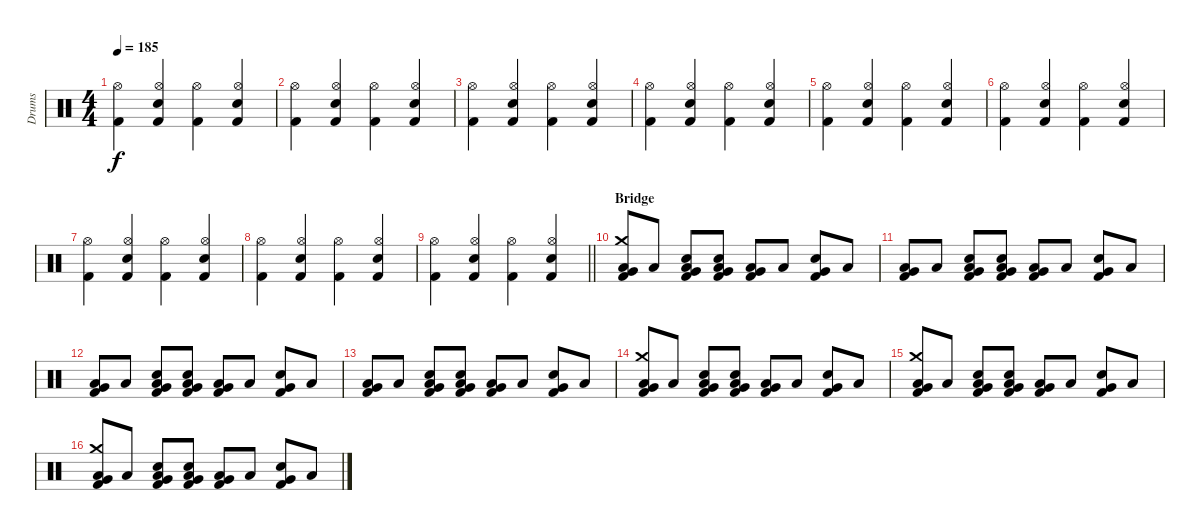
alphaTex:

\track ("Drums" "Drums") {instrument percussion bank 1}
\staff {score}
\articulation defaults
\ts (4 4)
\tempo 185
\clef neutral
\ks c
("Kick (hit) 2" "Hi-Hat (open)").4{dy f} ("Kick (hit) 2" "Snare (hit) 2" "Hi-Hat (open)").4 ("Kick (hit) 2" "Hi-Hat (open)").4 ("Kick (hit) 2" "Snare (hit) 2" "Hi-Hat (open)").4 |
("Kick (hit) 2" "Hi-Hat (open)").4 ("Kick (hit) 2" "Snare (hit) 2" "Hi-Hat (open)").4 ("Kick (hit) 2" "Hi-Hat (open)").4 ("Kick (hit) 2" "Snare (hit) 2" "Hi-Hat (open)").4 |
("Kick (hit) 2" "Hi-Hat (open)").4 ("Kick (hit) 2" "Snare (hit) 2" "Hi-Hat (open)").4 ("Kick (hit) 2" "Hi-Hat (open)").4 ("Kick (hit) 2" "Snare (hit) 2" "Hi-Hat (open)").4 |
("Kick (hit) 2" "Hi-Hat (open)").4 ("Kick (hit) 2" "Snare (hit) 2" "Hi-Hat (open)").4 ("Kick (hit) 2" "Hi-Hat (open)").4 ("Kick (hit) 2" "Snare (hit) 2" "Hi-Hat (open)").4 |
("Kick (hit) 2" "Hi-Hat (open)").4 ("Kick (hit) 2" "Snare (hit) 2" "Hi-Hat (open)").4 ("Kick (hit) 2" "Hi-Hat (open)").4 ("Kick (hit) 2" "Snare (hit) 2" "Hi-Hat (open)").4 |
("Kick (hit) 2" "Hi-Hat (open)").4 ("Kick (hit) 2" "Snare (hit) 2" "Hi-Hat (open)").4 ("Kick (hit) 2" "Hi-Hat (open)").4 ("Kick (hit) 2" "Snare (hit) 2" "Hi-Hat (open)").4 |
("Kick (hit) 2" "Hi-Hat (open)").4 ("Kick (hit) 2" "Snare (hit) 2" "Hi-Hat (open)").4 ("Kick (hit) 2" "Hi-Hat (open)").4 ("Kick (hit) 2" "Snare (hit) 2" "Hi-Hat (open)").4 |
("Kick (hit) 2" "Hi-Hat (open)").4 ("Kick (hit) 2" "Snare (hit) 2" "Hi-Hat (open)").4 ("Kick (hit) 2" "Hi-Hat (open)").4 ("Kick (hit) 2" "Snare (hit) 2" "Hi-Hat (open)").4 |
\barLineRight lightlight
("Kick (hit) 2" "Hi-Hat (open)").4 ("Kick (hit) 2" "Snare (hit) 2" "Hi-Hat (open)").4 ("Kick (hit) 2" "Hi-Hat (open)").4 ("Kick (hit) 2" "Snare (hit) 2" "Hi-Hat (open)").4 |
\section ("" "Bridge")
("Crash medium (hit)" "Very Low Tom (hit)" "Kick (hit) 2" "Low Tom (hit)").8 "Low Tom (hit)".8 ("Snare (hit) 2" "Kick (hit) 2" "Very Low Tom (hit)" "Low Tom (hit)").8 ("Snare (hit) 2" "Very Low Tom (hit)" "Kick (hit) 2" "Low Tom (hit)").8 ("Low Tom (hit)" "Very Low Tom (hit)" "Kick (hit) 2").8 "Low Tom (hit)".8 ("Snare (hit) 2" "Kick (hit) 2" "Very Low Tom (hit)").8 "Low Tom (hit)".8 |
("Very Low Tom (hit)" "Kick (hit) 2" "Low Tom (hit)").8 "Low Tom (hit)".8 ("Snare (hit) 2" "Kick (hit) 2" "Very Low Tom (hit)" "Low Tom (hit)").8 ("Snare (hit) 2" "Very Low Tom (hit)" "Kick (hit) 2" "Low Tom (hit)").8 ("Low Tom (hit)" "Very Low Tom (hit)" "Kick (hit) 2").8 "Low Tom (hit)".8 ("Snare (hit) 2" "Kick (hit) 2" "Very Low Tom (hit)").8 "Low Tom (hit)".8 |
("Very Low Tom (hit)" "Kick (hit) 2" "Low Tom (hit)").8 "Low Tom (hit)".8 ("Snare (hit) 2" "Kick (hit) 2" "Very Low Tom (hit)" "Low Tom (hit)").8 ("Snare (hit) 2" "Very Low Tom (hit)" "Kick (hit) 2" "Low Tom (hit)").8 ("Low Tom (hit)" "Very Low Tom (hit)" "Kick (hit) 2").8 "Low Tom (hit)".8 ("Snare (hit) 2" "Kick (hit) 2" "Very Low Tom (hit)").8 "Low Tom (hit)".8 |
("Very Low Tom (hit)" "Kick (hit) 2" "Low Tom (hit)").8 "Low Tom (hit)".8 ("Snare (hit) 2" "Kick (hit) 2" "Very Low Tom (hit)" "Low Tom (hit)").8 ("Snare (hit) 2" "Very Low Tom (hit)" "Kick (hit) 2" "Low Tom (hit)").8 ("Low Tom (hit)" "Very Low Tom (hit)" "Kick (hit) 2").8 "Low Tom (hit)".8 ("Snare (hit) 2" "Kick (hit) 2" "Very Low Tom (hit)").8 "Low Tom (hit)".8 |
("Crash medium (hit)" "Very Low Tom (hit)" "Kick (hit) 2" "Low Tom (hit)").8 "Low Tom (hit)".8 ("Snare (hit) 2" "Kick (hit) 2" "Very Low Tom (hit)" "Low Tom (hit)").8 ("Snare (hit) 2" "Very Low Tom (hit)" "Kick (hit) 2" "Low Tom (hit)").8 ("Low Tom (hit)" "Very Low Tom (hit)" "Kick (hit) 2").8 "Low Tom (hit)".8 ("Snare (hit) 2" "Kick (hit) 2" "Very Low Tom (hit)").8 "Low Tom (hit)".8 |
("Crash medium (hit)" "Very Low Tom (hit)" "Kick (hit) 2" "Low Tom (hit)").8 "Low Tom (hit)".8 ("Snare (hit) 2" "Kick (hit) 2" "Very Low Tom (hit)" "Low Tom (hit)").8 ("Snare (hit) 2" "Very Low Tom (hit)" "Kick (hit) 2" "Low Tom (hit)").8 ("Low Tom (hit)" "Very Low Tom (hit)" "Kick (hit) 2").8 "Low Tom (hit)".8 ("Snare (hit) 2" "Kick (hit) 2" "Very Low Tom (hit)").8 "Low Tom (hit)".8 |
("Crash medium (hit)" "Very Low Tom (hit)" "Kick (hit) 2" "Low Tom (hit)").8 "Low Tom (hit)".8 ("Snare (hit) 2" "Kick (hit) 2" "Very Low Tom (hit)" "Low Tom (hit)").8 ("Snare (hit) 2" "Very Low Tom (hit)" "Kick (hit) 2" "Low Tom (hit)").8 ("Low Tom (hit)" "Very Low Tom (hit)" "Kick (hit) 2").8 "Low Tom (hit)".8 ("Snare (hit) 2" "Kick (hit) 2" "Very Low Tom (hit)").8 "Low Tom (hit)".8
